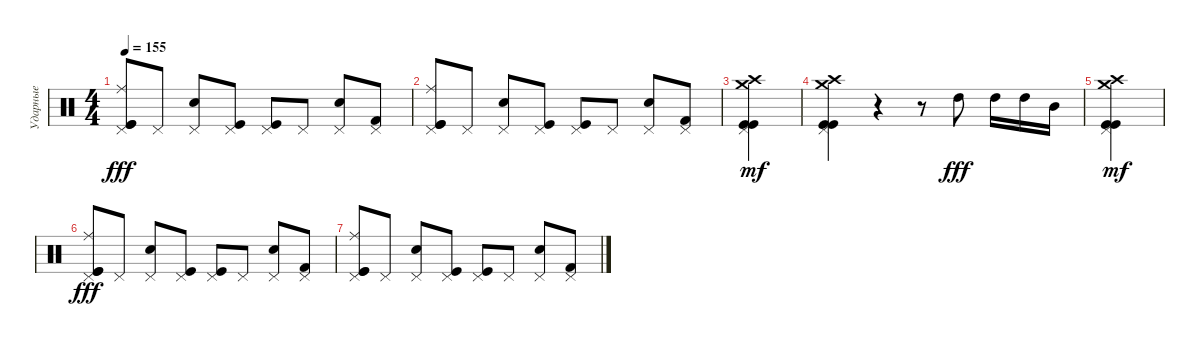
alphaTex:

\track ("Ударные" "Ударные") {instrument percussion}
\staff
\articulation defaults
\ts (4 4)
\tempo 155
\clef neutral
\ks c
("Kick (hit)" "Pedal Hi-Hat (hit)" "Kick (hit)" "Ride (middle)").8{dy fff} "Pedal Hi-Hat (hit)".8 ("Pedal Hi-Hat (hit)" "Snare (hit) 2").8 ("Pedal Hi-Hat (hit)" "Kick (hit)").8 ("Pedal Hi-Hat (hit)" "Kick (hit)").8 "Pedal Hi-Hat (hit)".8 ("Snare (hit) 2" "Pedal Hi-Hat (hit)").8 ("Kick (hit) 2" "Pedal Hi-Hat (hit)").8 |
("Kick (hit)" "Pedal Hi-Hat (hit)" "Kick (hit)" "Ride (middle)").8 "Pedal Hi-Hat (hit)".8 ("Pedal Hi-Hat (hit)" "Snare (hit) 2").8 ("Pedal Hi-Hat (hit)" "Kick (hit)").8 ("Pedal Hi-Hat (hit)" "Kick (hit)").8 "Pedal Hi-Hat (hit)".8 ("Snare (hit) 2" "Pedal Hi-Hat (hit)").8 ("Kick (hit) 2" "Pedal Hi-Hat (hit)").8 |
("Crash high (hit)" "Kick (hit)" "Pedal Hi-Hat (hit)" "Kick (hit)" "Crash medium (hit)").4{dy mf} |
("Crash high (hit)" "Kick (hit)" "Pedal Hi-Hat (hit)" "Kick (hit)" "Crash medium (hit)").4 r.4 r.8 "High Tom (hit)".8{dy fff} "High Tom (hit)".16 "High Tom (hit)".16 "Mid Tom (hit)".16 |
("Crash high (hit)" "Kick (hit)" "Pedal Hi-Hat (hit)" "Kick (hit)" "Crash medium (hit)").4{dy mf} |
("Kick (hit)" "Pedal Hi-Hat (hit)" "Kick (hit)" "Ride (middle)").8{dy fff} "Pedal Hi-Hat (hit)".8 ("Pedal Hi-Hat (hit)" "Snare (hit) 2").8 ("Pedal Hi-Hat (hit)" "Kick (hit)").8 ("Pedal Hi-Hat (hit)" "Kick (hit)").8 "Pedal Hi-Hat (hit)".8 ("Snare (hit) 2" "Pedal Hi-Hat (hit)").8 ("Kick (hit) 2" "Pedal Hi-Hat (hit)").8 |
("Kick (hit)" "Pedal Hi-Hat (hit)" "Kick (hit)" "Ride (middle)").8 "Pedal Hi-Hat (hit)".8 ("Pedal Hi-Hat (hit)" "Snare (hit) 2").8 ("Pedal Hi-Hat (hit)" "Kick (hit)").8 ("Pedal Hi-Hat (hit)" "Kick (hit)").8 "Pedal Hi-Hat (hit)".8 ("Snare (hit) 2" "Pedal Hi-Hat (hit)").8 ("Kick (hit) 2" "Pedal Hi-Hat (hit)").8
